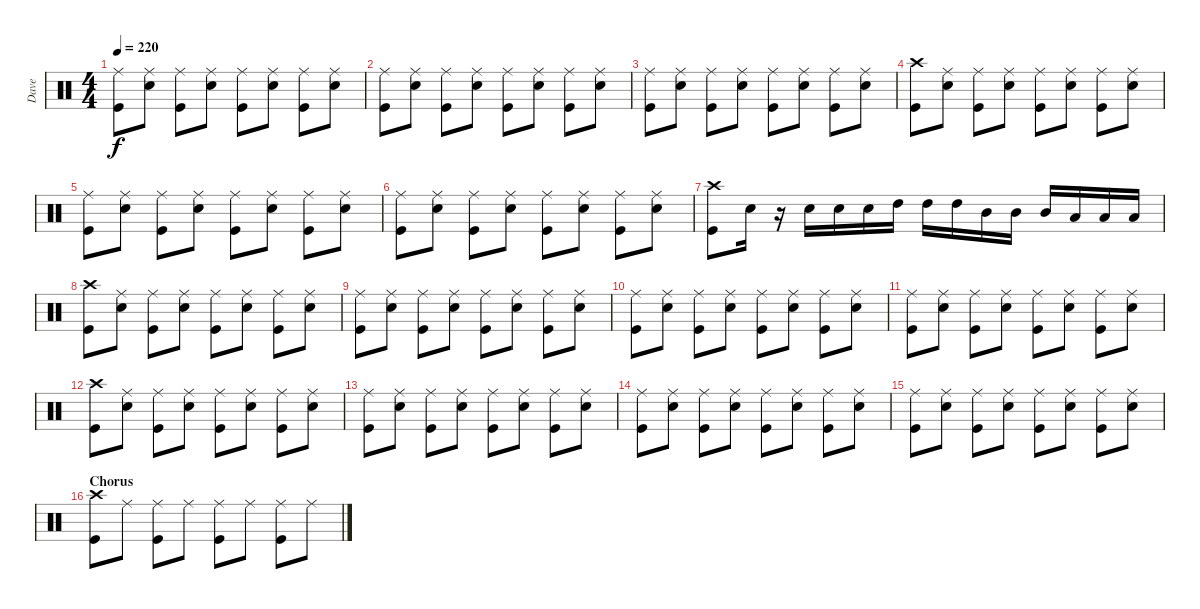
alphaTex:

\track ("Dave" "Dave") {instrument percussion}
\staff {score}
\articulation defaults
\ts (4 4)
\tempo 220
\clef neutral
\ks c
("Ride (middle)" "Kick (hit)").8{dy f} ("Ride (middle)" "Snare (hit) 2").8 ("Ride (middle)" "Kick (hit)").8 ("Ride (middle)" "Snare (hit) 2").8 ("Ride (middle)" "Kick (hit)").8 ("Ride (middle)" "Snare (hit) 2").8 ("Ride (middle)" "Kick (hit)").8 ("Ride (middle)" "Snare (hit) 2").8 |
("Ride (middle)" "Kick (hit)").8 ("Ride (middle)" "Snare (hit) 2").8 ("Ride (middle)" "Kick (hit)").8 ("Ride (middle)" "Snare (hit) 2").8 ("Ride (middle)" "Kick (hit)").8 ("Ride (middle)" "Snare (hit) 2").8 ("Ride (middle)" "Kick (hit)").8 ("Ride (middle)" "Snare (hit) 2").8 |
("Ride (middle)" "Kick (hit)").8 ("Ride (middle)" "Snare (hit) 2").8 ("Ride (middle)" "Kick (hit)").8 ("Ride (middle)" "Snare (hit) 2").8 ("Ride (middle)" "Kick (hit)").8 ("Ride (middle)" "Snare (hit) 2").8 ("Ride (middle)" "Kick (hit)").8 ("Ride (middle)" "Snare (hit) 2").8 |
("Crash high (hit)" "Kick (hit)").8 ("Ride (middle)" "Snare (hit) 2").8 ("Ride (middle)" "Kick (hit)").8 ("Ride (middle)" "Snare (hit) 2").8 ("Ride (middle)" "Kick (hit)").8 ("Ride (middle)" "Snare (hit) 2").8 ("Ride (middle)" "Kick (hit)").8 ("Ride (middle)" "Snare (hit) 2").8 |
("Ride (middle)" "Kick (hit)").8 ("Ride (middle)" "Snare (hit) 2").8 ("Ride (middle)" "Kick (hit)").8 ("Ride (middle)" "Snare (hit) 2").8 ("Ride (middle)" "Kick (hit)").8 ("Ride (middle)" "Snare (hit) 2").8 ("Ride (middle)" "Kick (hit)").8 ("Ride (middle)" "Snare (hit) 2").8 |
("Ride (middle)" "Kick (hit)").8 ("Ride (middle)" "Snare (hit) 2").8 ("Ride (middle)" "Kick (hit)").8 ("Ride (middle)" "Snare (hit) 2").8 ("Ride (middle)" "Kick (hit)").8 ("Ride (middle)" "Snare (hit) 2").8 ("Ride (middle)" "Kick (hit)").8 ("Ride (middle)" "Snare (hit) 2").8 |
("Crash high (hit)" "Kick (hit)").8 "Snare (hit) 2".16 r.16 "Snare (hit) 2".16 "Snare (hit) 2".16 "Snare (hit) 2".16 "High Tom (hit)".16 "High Tom (hit)".16 "High Tom (hit)".16 "Mid Tom (hit)".16 "Mid Tom (hit)".16 "Mid Tom (hit)".16 "Low Tom (hit)".16 "Low Tom (hit)".16 "Low Tom (hit)".16 |
("Crash high (hit)" "Kick (hit)").8 ("Ride (middle)" "Snare (hit) 2").8 ("Ride (middle)" "Kick (hit)").8 ("Ride (middle)" "Snare (hit) 2").8 ("Ride (middle)" "Kick (hit)").8 ("Ride (middle)" "Snare (hit) 2").8 ("Ride (middle)" "Kick (hit)").8 ("Ride (middle)" "Snare (hit) 2").8 |
("Ride (middle)" "Kick (hit)").8 ("Ride (middle)" "Snare (hit) 2").8 ("Ride (middle)" "Kick (hit)").8 ("Ride (middle)" "Snare (hit) 2").8 ("Ride (middle)" "Kick (hit)").8 ("Ride (middle)" "Snare (hit) 2").8 ("Ride (middle)" "Kick (hit)").8 ("Ride (middle)" "Snare (hit) 2").8 |
("Ride (middle)" "Kick (hit)").8 ("Ride (middle)" "Snare (hit) 2").8 ("Ride (middle)" "Kick (hit)").8 ("Ride (middle)" "Snare (hit) 2").8 ("Ride (middle)" "Kick (hit)").8 ("Ride (middle)" "Snare (hit) 2").8 ("Ride (middle)" "Kick (hit)").8 ("Ride (middle)" "Snare (hit) 2").8 |
("Ride (middle)" "Kick (hit)").8 ("Ride (middle)" "Snare (hit) 2").8 ("Ride (middle)" "Kick (hit)").8 ("Ride (middle)" "Snare (hit) 2").8 ("Ride (middle)" "Kick (hit)").8 ("Ride (middle)" "Snare (hit) 2").8 ("Ride (middle)" "Kick (hit)").8 ("Ride (middle)" "Snare (hit) 2").8 |
("Crash high (hit)" "Kick (hit)").8 ("Ride (middle)" "Snare (hit) 2").8 ("Ride (middle)" "Kick (hit)").8 ("Ride (middle)" "Snare (hit) 2").8 ("Ride (middle)" "Kick (hit)").8 ("Ride (middle)" "Snare (hit) 2").8 ("Ride (middle)" "Kick (hit)").8 ("Ride (middle)" "Snare (hit) 2").8 |
("Ride (middle)" "Kick (hit)").8 ("Ride (middle)" "Snare (hit) 2").8 ("Ride (middle)" "Kick (hit)").8 ("Ride (middle)" "Snare (hit) 2").8 ("Ride (middle)" "Kick (hit)").8 ("Ride (middle)" "Snare (hit) 2").8 ("Ride (middle)" "Kick (hit)").8 ("Ride (middle)" "Snare (hit) 2").8 |
("Ride (middle)" "Kick (hit)").8 ("Ride (middle)" "Snare (hit) 2").8 ("Ride (middle)" "Kick (hit)").8 ("Ride (middle)" "Snare (hit) 2").8 ("Ride (middle)" "Kick (hit)").8 ("Ride (middle)" "Snare (hit) 2").8 ("Ride (middle)" "Kick (hit)").8 ("Ride (middle)" "Snare (hit) 2").8 |
("Ride (middle)" "Kick (hit)").8 ("Ride (middle)" "Snare (hit) 2").8 ("Ride (middle)" "Kick (hit)").8 ("Ride (middle)" "Snare (hit) 2").8 ("Ride (middle)" "Kick (hit)").8 ("Ride (middle)" "Snare (hit) 2").8 ("Ride (middle)" "Kick (hit)").8 ("Ride (middle)" "Snare (hit) 2").8 |
\section ("" "Chorus")
("Crash high (hit)" "Kick (hit)").8 "Ride (middle)".8 ("Ride (middle)" "Kick (hit)").8 "Ride (middle)".8 ("Ride (middle)" "Kick (hit)").8 "Ride (middle)".8 ("Ride (middle)" "Kick (hit)").8 "Ride (middle)".8
